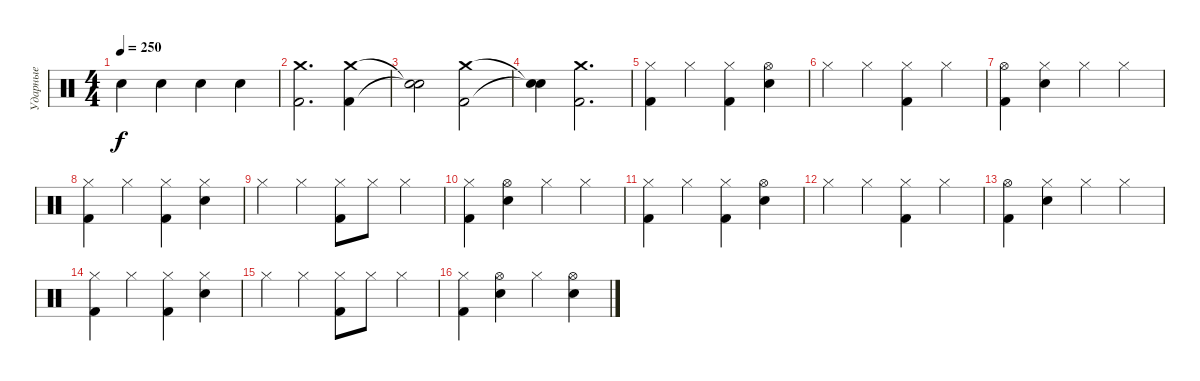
\track ("Ударные" "Ударные") {instrument percussion}
\staff {score}
\articulation defaults
\ts (4 4)
\tempo 250
\clef neutral
\ks c "Snare (hit) 2".4{dy f} "Snare (hit) 2".4 "Snare (hit) 2".4 "Snare (hit) 2".4
|
("Crash medium (hit)" "Kick (hit) 2").2{d} ("Crash medium (hit)" "Kick (hit) 2").4 |
("Snare (hit)"{t} "Snare (hit)"{t}).2 ("Crash medium (hit)" "Kick (hit) 2").2 |
("Snare (hit)"{t} "Snare (hit)"{t}).4 ("Crash medium (hit)" "Kick (hit) 2").2{d} |
("Hi-Hat (closed)" "Kick (hit) 2").4 "Hi-Hat (closed)".4 ("Hi-Hat (closed)" "Kick (hit) 2").4 ("Snare (hit) 2" "Hi-Hat (open)").4 |
"Hi-Hat (closed)".4 "Hi-Hat (closed)".4 ("Hi-Hat (closed)" "Kick (hit) 2").4 "Hi-Hat (closed)".4 |
("Hi-Hat (open)" "Kick (hit) 2").4 ("Snare (hit) 2" "Hi-Hat (closed)").4 "Hi-Hat (closed)".4 "Hi-Hat (closed)".4 |
("Hi-Hat (closed)" "Kick (hit) 2").4 "Hi-Hat (closed)".4 ("Hi-Hat (closed)" "Kick (hit) 2").4 ("Snare (hit) 2" "Hi-Hat (closed)").4 |
"Hi-Hat (closed)".4 "Hi-Hat (closed)".4 ("Hi-Hat (closed)" "Kick (hit) 2").8 "Hi-Hat (closed)".8 "Hi-Hat (closed)".4 |
("Hi-Hat (closed)" "Kick (hit) 2").4 ("Snare (hit) 2" "Hi-Hat (open)").4 "Hi-Hat (closed)".4 "Hi-Hat (closed)".4 |
("Hi-Hat (closed)" "Kick (hit) 2").4 "Hi-Hat (closed)".4 ("Hi-Hat (closed)" "Kick (hit) 2").4 ("Snare (hit) 2" "Hi-Hat (open)").4 |
"Hi-Hat (closed)".4 "Hi-Hat (closed)".4 ("Hi-Hat (closed)" "Kick (hit) 2").4 "Hi-Hat (closed)".4 |
("Hi-Hat (open)" "Kick (hit) 2").4 ("Snare (hit) 2" "Hi-Hat (closed)").4 "Hi-Hat (closed)".4 "Hi-Hat (closed)".4 |
("Hi-Hat (closed)" "Kick (hit) 2").4 "Hi-Hat (closed)".4 ("Hi-Hat (closed)" "Kick (hit) 2").4 ("Snare (hit) 2" "Hi-Hat (closed)").4 |
"Hi-Hat (closed)".4 "Hi-Hat (closed)".4 ("Hi-Hat (closed)" "Kick (hit) 2").8 "Hi-Hat (closed)".8 "Hi-Hat (closed)".4 |
("Hi-Hat (closed)" "Kick (hit) 2").4 ("Snare (hit) 2" "Hi-Hat (open)").4 "Hi-Hat (closed)".4 ("Snare (hit) 2" "Hi-Hat (open)").4
